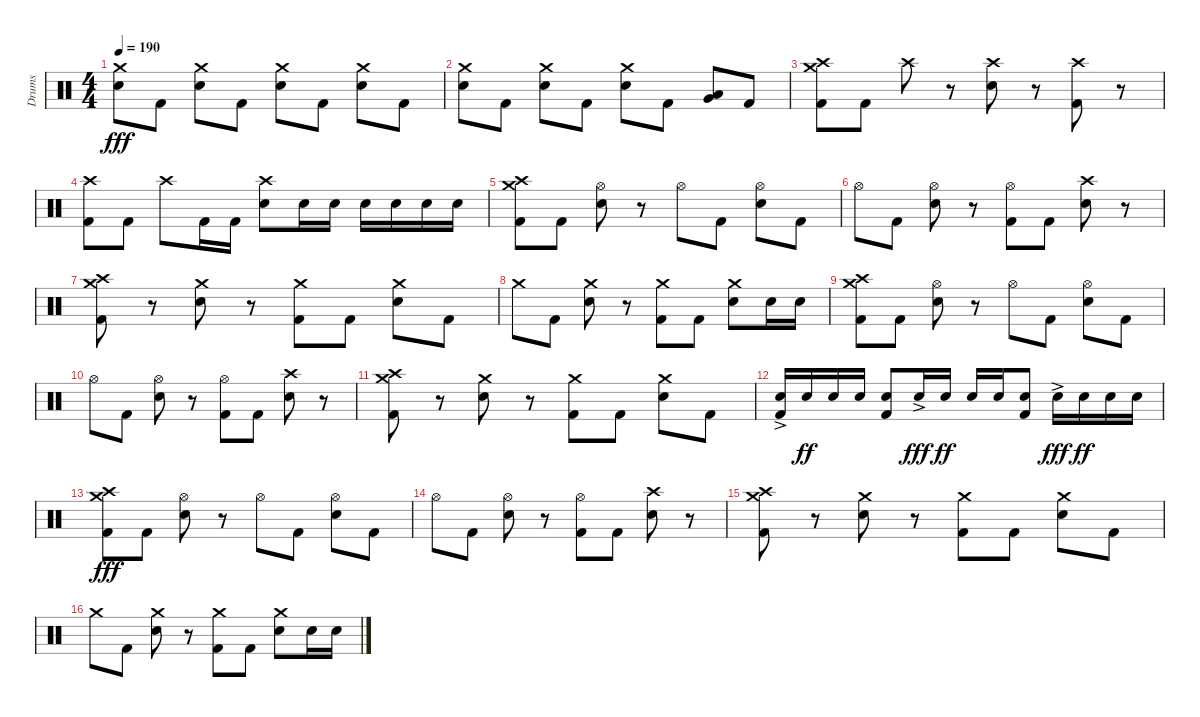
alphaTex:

\track ("Drums" "Drums") {instrument percussion}
\staff {score}
\articulation defaults
\ts (4 4)
\tempo 190
\clef neutral
\ks c
("Crash medium (hit)" "Electric Snare (hit)").8{dy fff} "Kick (hit) 2".8 ("Crash medium (hit)" "Electric Snare (hit)").8 "Kick (hit) 2".8 ("Crash medium (hit)" "Electric Snare (hit)").8 "Kick (hit) 2".8 ("Crash medium (hit)" "Electric Snare (hit)").8 "Kick (hit) 2".8 |
("Crash medium (hit)" "Electric Snare (hit)").8 "Kick (hit) 2".8 ("Crash medium (hit)" "Electric Snare (hit)").8 "Kick (hit) 2".8 ("Crash medium (hit)" "Electric Snare (hit)").8 "Kick (hit) 2".8 ("Very Low Tom (hit)" "Low Floor Tom (hit)").8 "Kick (hit) 2".8 |
("Crash high (hit)" "Crash medium (hit)" "Kick (hit) 2").8 "Kick (hit) 2".8 "Crash high (hit)".8 r.8 ("Crash high (hit)" "Electric Snare (hit)").8 r.8 ("Crash high (hit)" "Kick (hit) 2").8 r.8 |
("Crash high (hit)" "Kick (hit) 2").8 "Kick (hit) 2".8 "Crash high (hit)".8 "Kick (hit) 2".16 "Kick (hit) 2".16 ("Crash high (hit)" "Electric Snare (hit)").8 "Electric Snare (hit)".16 "Electric Snare (hit)".16 "Electric Snare (hit)".16 "Electric Snare (hit)".16 "Electric Snare (hit)".16 "Electric Snare (hit)".16 |
("Crash medium (hit)" "Crash high (hit)" "Kick (hit) 2").8 "Kick (hit) 2".8 ("Hi-Hat (open)" "Electric Snare (hit)").8 r.8 "Hi-Hat (open)".8 "Kick (hit) 2".8 ("Hi-Hat (open)" "Electric Snare (hit)").8 "Kick (hit) 2".8 |
"Hi-Hat (open)".8 "Kick (hit) 2".8 ("Hi-Hat (open)" "Electric Snare (hit)").8 r.8 ("Hi-Hat (open)" "Kick (hit) 2").8 "Kick (hit) 2".8 ("Crash high (hit)" "Electric Snare (hit)").8 r.8 |
("Crash medium (hit)" "Crash high (hit)" "Kick (hit) 2").8 r.8 ("Crash medium (hit)" "Electric Snare (hit)").8 r.8 ("Crash medium (hit)" "Kick (hit) 2").8 "Kick (hit) 2".8 ("Crash medium (hit)" "Electric Snare (hit)").8 "Kick (hit) 2".8 |
"Crash medium (hit)".8 "Kick (hit) 2".8 ("Crash medium (hit)" "Electric Snare (hit)").8 r.8 ("Crash medium (hit)" "Kick (hit) 2").8 "Kick (hit) 2".8 ("Crash medium (hit)" "Electric Snare (hit)").8 "Electric Snare (hit)".16 "Electric Snare (hit)".16 |
("Crash medium (hit)" "Crash high (hit)" "Kick (hit) 2").8 "Kick (hit) 2".8 ("Hi-Hat (open)" "Electric Snare (hit)").8 r.8 "Hi-Hat (open)".8 "Kick (hit) 2".8 ("Hi-Hat (open)" "Electric Snare (hit)").8 "Kick (hit) 2".8 |
"Hi-Hat (open)".8 "Kick (hit) 2".8 ("Hi-Hat (open)" "Electric Snare (hit)").8 r.8 ("Hi-Hat (open)" "Kick (hit) 2").8 "Kick (hit) 2".8 ("Crash high (hit)" "Electric Snare (hit)").8 r.8 |
("Crash medium (hit)" "Crash high (hit)" "Kick (hit) 2").8 r.8 ("Crash medium (hit)" "Electric Snare (hit)").8 r.8 ("Crash medium (hit)" "Kick (hit) 2").8 "Kick (hit) 2".8 ("Crash medium (hit)" "Electric Snare (hit)").8 "Kick (hit) 2".8 |
("Electric Snare (hit)"{ac} "Kick (hit) 2").16 "Electric Snare (hit)".16{dy ff} "Electric Snare (hit)".16 "Electric Snare (hit)".16 ("Electric Snare (hit)" "Kick (hit) 2").8 "Electric Snare (hit)"{ac}.16{dy fff} "Electric Snare (hit)".16{dy ff} "Electric Snare (hit)".16 "Electric Snare (hit)".16 ("Electric Snare (hit)" "Kick (hit) 2").8 "Electric Snare (hit)"{ac}.16{dy fff} "Electric Snare (hit)".16{dy ff} "Electric Snare (hit)".16 "Electric Snare (hit)".16 |
("Crash medium (hit)" "Crash high (hit)" "Kick (hit) 2").8{dy fff} "Kick (hit) 2".8 ("Hi-Hat (open)" "Electric Snare (hit)").8 r.8 "Hi-Hat (open)".8 "Kick (hit) 2".8 ("Hi-Hat (open)" "Electric Snare (hit)").8 "Kick (hit) 2".8 |
"Hi-Hat (open)".8 "Kick (hit) 2".8 ("Hi-Hat (open)" "Electric Snare (hit)").8 r.8 ("Hi-Hat (open)" "Kick (hit) 2").8 "Kick (hit) 2".8 ("Crash high (hit)" "Electric Snare (hit)").8 r.8 |
("Crash medium (hit)" "Crash high (hit)" "Kick (hit) 2").8 r.8 ("Crash medium (hit)" "Electric Snare (hit)").8 r.8 ("Crash medium (hit)" "Kick (hit) 2").8 "Kick (hit) 2".8 ("Crash medium (hit)" "Electric Snare (hit)").8 "Kick (hit) 2".8 |
"Crash medium (hit)".8 "Kick (hit) 2".8 ("Crash medium (hit)" "Electric Snare (hit)").8 r.8 ("Crash medium (hit)" "Kick (hit) 2").8 "Kick (hit) 2".8 ("Crash medium (hit)" "Electric Snare (hit)").8 "Electric Snare (hit)".16 "Electric Snare (hit)".16
